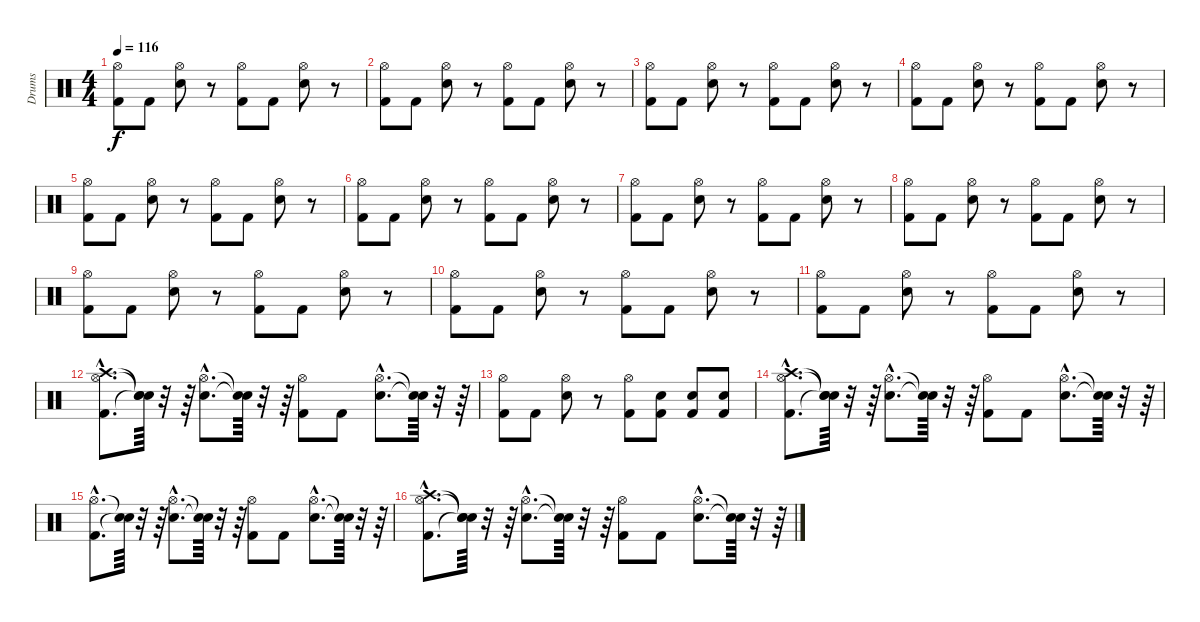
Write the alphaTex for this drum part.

\track ("Drums" "Drums") {instrument percussion}
\staff {score}
\articulation defaults
\ts (4 4)
\tempo 116
\clef neutral
\ks c
("Kick (hit) 2" "Hi-Hat (open)").8{dy f} "Kick (hit) 2".8 ("Snare (hit) 2" "Hi-Hat (open)").8 r.8 ("Kick (hit) 2" "Hi-Hat (open)").8 "Kick (hit) 2".8 ("Snare (hit) 2" "Hi-Hat (open)").8 r.8 |
("Kick (hit) 2" "Hi-Hat (open)").8 "Kick (hit) 2".8 ("Snare (hit) 2" "Hi-Hat (open)").8 r.8 ("Kick (hit) 2" "Hi-Hat (open)").8 "Kick (hit) 2".8 ("Snare (hit) 2" "Hi-Hat (open)").8 r.8 |
("Kick (hit) 2" "Hi-Hat (open)").8 "Kick (hit) 2".8 ("Snare (hit) 2" "Hi-Hat (open)").8 r.8 ("Kick (hit) 2" "Hi-Hat (open)").8 "Kick (hit) 2".8 ("Snare (hit) 2" "Hi-Hat (open)").8 r.8 |
("Kick (hit) 2" "Hi-Hat (open)").8 "Kick (hit) 2".8 ("Snare (hit) 2" "Hi-Hat (open)").8 r.8 ("Kick (hit) 2" "Hi-Hat (open)").8 "Kick (hit) 2".8 ("Snare (hit) 2" "Hi-Hat (open)").8 r.8 |
("Kick (hit) 2" "Hi-Hat (open)").8 "Kick (hit) 2".8 ("Snare (hit) 2" "Hi-Hat (open)").8 r.8 ("Kick (hit) 2" "Hi-Hat (open)").8 "Kick (hit) 2".8 ("Snare (hit) 2" "Hi-Hat (open)").8 r.8 |
("Kick (hit) 2" "Hi-Hat (open)").8 "Kick (hit) 2".8 ("Snare (hit) 2" "Hi-Hat (open)").8 r.8 ("Kick (hit) 2" "Hi-Hat (open)").8 "Kick (hit) 2".8 ("Snare (hit) 2" "Hi-Hat (open)").8 r.8 |
("Kick (hit) 2" "Hi-Hat (open)").8 "Kick (hit) 2".8 ("Snare (hit) 2" "Hi-Hat (open)").8 r.8 ("Kick (hit) 2" "Hi-Hat (open)").8 "Kick (hit) 2".8 ("Snare (hit) 2" "Hi-Hat (open)").8 r.8 |
("Kick (hit) 2" "Hi-Hat (open)").8 "Kick (hit) 2".8 ("Snare (hit) 2" "Hi-Hat (open)").8 r.8 ("Kick (hit) 2" "Hi-Hat (open)").8 "Kick (hit) 2".8 ("Snare (hit) 2" "Hi-Hat (open)").8 r.8 |
("Kick (hit) 2" "Hi-Hat (open)").8 "Kick (hit) 2".8 ("Snare (hit) 2" "Hi-Hat (open)").8 r.8 ("Kick (hit) 2" "Hi-Hat (open)").8 "Kick (hit) 2".8 ("Snare (hit) 2" "Hi-Hat (open)").8 r.8 |
("Kick (hit) 2" "Hi-Hat (open)").8 "Kick (hit) 2".8 ("Snare (hit) 2" "Hi-Hat (open)").8 r.8 ("Kick (hit) 2" "Hi-Hat (open)").8 "Kick (hit) 2".8 ("Snare (hit) 2" "Hi-Hat (open)").8 r.8 |
("Kick (hit) 2" "Hi-Hat (open)").8 "Kick (hit) 2".8 ("Snare (hit) 2" "Hi-Hat (open)").8 r.8 ("Kick (hit) 2" "Hi-Hat (open)").8 "Kick (hit) 2".8 ("Snare (hit) 2" "Hi-Hat (open)").8 r.8 |
("Kick (hit) 2"{hac} "Hi-Hat (open)"{hac} "Crash high (hit)"{hac}).8{d} ("Snare (hit)"{t} "Snare (hit)"{t} "Snare (hit)"{t}).64 r.32 r.64 ("Snare (hit) 2"{hac} "Hi-Hat (open)"{hac}).8{d} ("Snare (hit)"{t} "Snare (hit)"{t}).64 r.32 r.64 ("Kick (hit) 2" "Hi-Hat (open)").8 "Kick (hit) 2".8 ("Snare (hit) 2"{hac} "Hi-Hat (open)"{hac}).8{d} ("Snare (hit)"{t} "Snare (hit)"{t}).64 r.32 r.64 |
("Kick (hit) 2" "Hi-Hat (open)").8 "Kick (hit) 2".8 ("Snare (hit) 2" "Hi-Hat (open)").8 r.8 ("Kick (hit) 2" "Hi-Hat (open)").8 ("Kick (hit) 2" "Snare (hit) 2").8 ("Kick (hit) 2" "Snare (hit) 2").8 ("Kick (hit) 2" "Snare (hit) 2").8 |
("Kick (hit) 2"{hac} "Hi-Hat (open)"{hac} "Crash high (hit)"{hac}).8{d} ("Snare (hit)"{t} "Snare (hit)"{t} "Snare (hit)"{t}).64 r.32 r.64 ("Snare (hit) 2"{hac} "Hi-Hat (open)"{hac}).8{d} ("Snare (hit)"{t} "Snare (hit)"{t}).64 r.32 r.64 ("Kick (hit) 2" "Hi-Hat (open)").8 "Kick (hit) 2".8 ("Snare (hit) 2"{hac} "Hi-Hat (open)"{hac}).8{d} ("Snare (hit)"{t} "Snare (hit)"{t}).64 r.32 r.64 |
("Kick (hit) 2"{hac} "Hi-Hat (open)"{hac}).8{d} ("Snare (hit)"{t} "Snare (hit)"{t}).64 r.32 r.64 ("Snare (hit) 2"{hac} "Hi-Hat (open)"{hac}).8{d} ("Snare (hit)"{t} "Snare (hit)"{t}).64 r.32 r.64 ("Kick (hit) 2" "Hi-Hat (open)").8 "Kick (hit) 2".8 ("Snare (hit) 2"{hac} "Hi-Hat (open)"{hac}).8{d} ("Snare (hit)"{t} "Snare (hit)"{t}).64 r.32 r.64 |
("Kick (hit) 2"{hac} "Hi-Hat (open)"{hac} "Crash high (hit)"{hac}).8{d} ("Snare (hit)"{t} "Snare (hit)"{t} "Snare (hit)"{t}).64 r.32 r.64 ("Snare (hit) 2"{hac} "Hi-Hat (open)"{hac}).8{d} ("Snare (hit)"{t} "Snare (hit)"{t}).64 r.32 r.64 ("Kick (hit) 2" "Hi-Hat (open)").8 "Kick (hit) 2".8 ("Snare (hit) 2"{hac} "Hi-Hat (open)"{hac}).8{d} ("Snare (hit)"{t} "Snare (hit)"{t}).64 r.32 r.64
